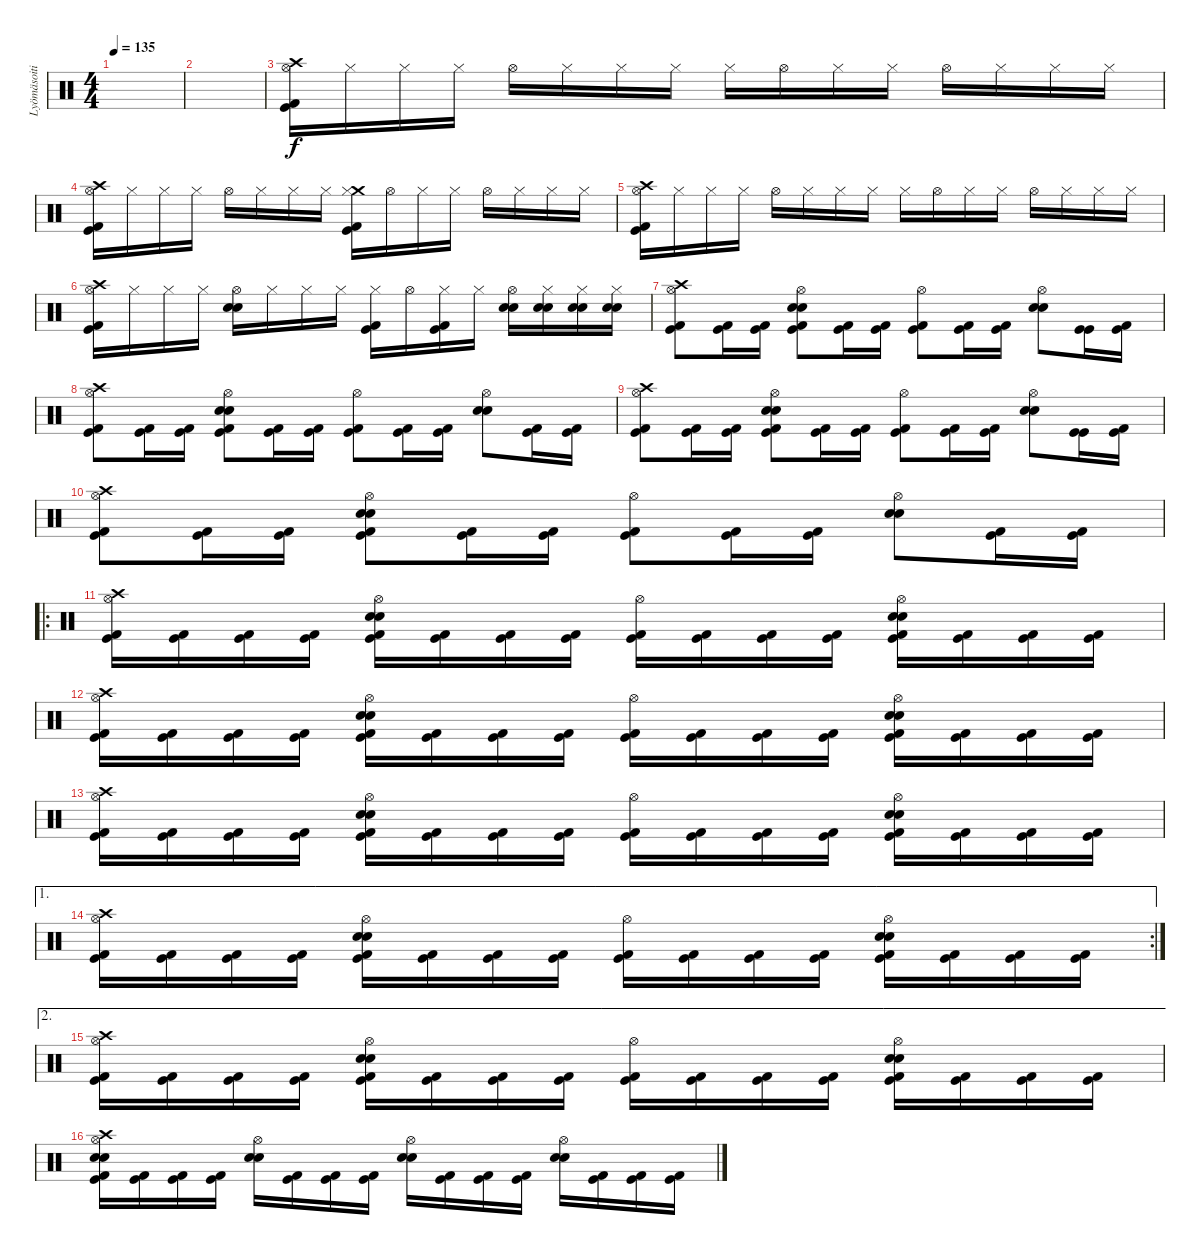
\track ("Lyömäsoitin" "Lyömäsoiti") {instrument percussion}
\staff {score}
\articulation defaults
\ts (4 4)
\tempo 135
\clef neutral
\ks c
|
|
("Crash high (hit)" "Hi-Hat (open)" "Kick (hit)" "Kick (hit) 2").16 "Hi-Hat (closed)".16 "Hi-Hat (closed)".16 "Hi-Hat (closed)".16 "Hi-Hat (open)".16 "Hi-Hat (closed)".16 "Hi-Hat (closed)".16 "Hi-Hat (closed)".16 "Hi-Hat (closed)".16 "Hi-Hat (open)".16 "Hi-Hat (closed)".16 "Hi-Hat (closed)".16 "Hi-Hat (open)".16 "Hi-Hat (closed)".16 "Hi-Hat (closed)".16 "Hi-Hat (closed)".16 |
("Crash high (hit)" "Hi-Hat (open)" "Kick (hit) 2" "Kick (hit)").16 "Hi-Hat (closed)".16 "Hi-Hat (closed)".16 "Hi-Hat (closed)".16 "Hi-Hat (open)".16 "Hi-Hat (closed)".16 "Hi-Hat (closed)".16 "Hi-Hat (closed)".16 ("Crash medium (hit)" "Hi-Hat (closed)" "Kick (hit) 2" "Kick (hit)").16 "Hi-Hat (open)".16 "Hi-Hat (closed)".16 "Hi-Hat (closed)".16 "Hi-Hat (open)".16 "Hi-Hat (closed)".16 "Hi-Hat (closed)".16 "Hi-Hat (closed)".16 |
("Crash high (hit)" "Hi-Hat (open)" "Kick (hit)" "Kick (hit) 2").16 "Hi-Hat (closed)".16 "Hi-Hat (closed)".16 "Hi-Hat (closed)".16 "Hi-Hat (open)".16 "Hi-Hat (closed)".16 "Hi-Hat (closed)".16 "Hi-Hat (closed)".16 "Hi-Hat (closed)".16 "Hi-Hat (open)".16 "Hi-Hat (closed)".16 "Hi-Hat (closed)".16 "Hi-Hat (open)".16 "Hi-Hat (closed)".16 "Hi-Hat (closed)".16 "Hi-Hat (closed)".16 |
("Crash high (hit)" "Hi-Hat (open)" "Kick (hit) 2" "Kick (hit)").16 "Hi-Hat (closed)".16 "Hi-Hat (closed)".16 "Hi-Hat (closed)".16 ("Electric Snare (hit)" "Snare (hit) 2" "Hi-Hat (open)").16 "Hi-Hat (closed)".16 "Hi-Hat (closed)".16 "Hi-Hat (closed)".16 ("Hi-Hat (closed)" "Kick (hit) 2" "Kick (hit)").16 "Hi-Hat (open)".16 ("Hi-Hat (closed)" "Kick (hit) 2" "Kick (hit)").16 "Hi-Hat (closed)".16 ("Electric Snare (hit)" "Snare (hit) 2" "Hi-Hat (open)").16 ("Electric Snare (hit)" "Snare (hit) 2" "Hi-Hat (closed)").16 ("Electric Snare (hit)" "Snare (hit) 2" "Hi-Hat (closed)").16 ("Electric Snare (hit)" "Snare (hit) 2" "Hi-Hat (closed)").16 |
("Crash high (hit)" "Hi-Hat (open)" "Kick (hit) 2" "Kick (hit)").8 ("Kick (hit) 2" "Kick (hit)").16 ("Kick (hit) 2" "Kick (hit)").16 ("Hi-Hat (open)" "Snare (hit) 2" "Electric Snare (hit)" "Kick (hit) 2" "Kick (hit)").8 ("Kick (hit) 2" "Kick (hit)").16 ("Kick (hit) 2" "Kick (hit)").16 ("Hi-Hat (open)" "Kick (hit) 2" "Kick (hit)").8 ("Kick (hit) 2" "Kick (hit)").16 ("Kick (hit) 2" "Kick (hit)").16 ("Hi-Hat (open)" "Snare (hit) 2" "Electric Snare (hit)").8 ("Kick (hit)" "Kick (hit)").16 ("Kick (hit) 2" "Kick (hit)").16 |
("Crash high (hit)" "Hi-Hat (open)" "Kick (hit) 2" "Kick (hit)").8 ("Kick (hit) 2" "Kick (hit)").16 ("Kick (hit) 2" "Kick (hit)").16 ("Hi-Hat (open)" "Snare (hit) 2" "Electric Snare (hit)" "Kick (hit) 2" "Kick (hit)").8 ("Kick (hit) 2" "Kick (hit)").16 ("Kick (hit) 2" "Kick (hit)").16 ("Hi-Hat (open)" "Kick (hit) 2" "Kick (hit)").8 ("Kick (hit) 2" "Kick (hit)").16 ("Kick (hit) 2" "Kick (hit)").16 ("Hi-Hat (open)" "Snare (hit) 2" "Electric Snare (hit)").8 ("Kick (hit)" "Kick (hit) 2").16 ("Kick (hit)" "Kick (hit) 2").16 |
("Crash high (hit)" "Hi-Hat (open)" "Kick (hit) 2" "Kick (hit)").8 ("Kick (hit) 2" "Kick (hit)").16 ("Kick (hit) 2" "Kick (hit)").16 ("Hi-Hat (open)" "Snare (hit) 2" "Electric Snare (hit)" "Kick (hit) 2" "Kick (hit)").8 ("Kick (hit) 2" "Kick (hit)").16 ("Kick (hit) 2" "Kick (hit)").16 ("Hi-Hat (open)" "Kick (hit) 2" "Kick (hit)").8 ("Kick (hit) 2" "Kick (hit)").16 ("Kick (hit) 2" "Kick (hit)").16 ("Hi-Hat (open)" "Snare (hit) 2" "Electric Snare (hit)").8 ("Kick (hit)" "Kick (hit)").16 ("Kick (hit) 2" "Kick (hit)").16 |
("Crash high (hit)" "Hi-Hat (open)" "Kick (hit) 2" "Kick (hit)").8 ("Kick (hit) 2" "Kick (hit)").16 ("Kick (hit) 2" "Kick (hit)").16 ("Hi-Hat (open)" "Snare (hit) 2" "Electric Snare (hit)" "Kick (hit) 2" "Kick (hit)").8 ("Kick (hit) 2" "Kick (hit)").16 ("Kick (hit) 2" "Kick (hit)").16 ("Hi-Hat (open)" "Kick (hit) 2" "Kick (hit)").8 ("Kick (hit) 2" "Kick (hit)").16 ("Kick (hit) 2" "Kick (hit)").16 ("Hi-Hat (open)" "Snare (hit) 2" "Electric Snare (hit)").8 ("Kick (hit)" "Kick (hit) 2").16 ("Kick (hit)" "Kick (hit) 2").16 |
\ro
("Crash high (hit)" "Hi-Hat (open)" "Kick (hit) 2" "Kick (hit)").16 ("Kick (hit) 2" "Kick (hit)").16 ("Kick (hit) 2" "Kick (hit)").16 ("Kick (hit) 2" "Kick (hit)").16 ("Hi-Hat (open)" "Electric Snare (hit)" "Snare (hit) 2" "Kick (hit) 2" "Kick (hit)").16 ("Kick (hit) 2" "Kick (hit)").16 ("Kick (hit) 2" "Kick (hit)").16 ("Kick (hit) 2" "Kick (hit)").16 ("Hi-Hat (open)" "Kick (hit) 2" "Kick (hit)").16 ("Kick (hit) 2" "Kick (hit)").16 ("Kick (hit) 2" "Kick (hit)").16 ("Kick (hit) 2" "Kick (hit)").16 ("Hi-Hat (open)" "Electric Snare (hit)" "Snare (hit) 2" "Kick (hit) 2" "Kick (hit)").16 ("Kick (hit) 2" "Kick (hit)").16 ("Kick (hit) 2" "Kick (hit)").16 ("Kick (hit) 2" "Kick (hit)").16 |
("Crash high (hit)" "Hi-Hat (open)" "Kick (hit) 2" "Kick (hit)").16 ("Kick (hit) 2" "Kick (hit)").16 ("Kick (hit) 2" "Kick (hit)").16 ("Kick (hit) 2" "Kick (hit)").16 ("Hi-Hat (open)" "Electric Snare (hit)" "Snare (hit) 2" "Kick (hit) 2" "Kick (hit)").16 ("Kick (hit) 2" "Kick (hit)").16 ("Kick (hit) 2" "Kick (hit)").16 ("Kick (hit) 2" "Kick (hit)").16 ("Hi-Hat (open)" "Kick (hit) 2" "Kick (hit)").16 ("Kick (hit) 2" "Kick (hit)").16 ("Kick (hit) 2" "Kick (hit)").16 ("Kick (hit) 2" "Kick (hit)").16 ("Hi-Hat (open)" "Electric Snare (hit)" "Snare (hit) 2" "Kick (hit) 2" "Kick (hit)").16 ("Kick (hit) 2" "Kick (hit)").16 ("Kick (hit) 2" "Kick (hit)").16 ("Kick (hit) 2" "Kick (hit)").16 |
("Crash high (hit)" "Hi-Hat (open)" "Kick (hit) 2" "Kick (hit)").16 ("Kick (hit) 2" "Kick (hit)").16 ("Kick (hit) 2" "Kick (hit)").16 ("Kick (hit) 2" "Kick (hit)").16 ("Hi-Hat (open)" "Electric Snare (hit)" "Snare (hit) 2" "Kick (hit) 2" "Kick (hit)").16 ("Kick (hit) 2" "Kick (hit)").16 ("Kick (hit) 2" "Kick (hit)").16 ("Kick (hit) 2" "Kick (hit)").16 ("Hi-Hat (open)" "Kick (hit) 2" "Kick (hit)").16 ("Kick (hit) 2" "Kick (hit)").16 ("Kick (hit) 2" "Kick (hit)").16 ("Kick (hit) 2" "Kick (hit)").16 ("Hi-Hat (open)" "Electric Snare (hit)" "Snare (hit) 2" "Kick (hit) 2" "Kick (hit)").16 ("Kick (hit) 2" "Kick (hit)").16 ("Kick (hit) 2" "Kick (hit)").16 ("Kick (hit) 2" "Kick (hit)").16 |
\ae 1
\rc 2
("Crash high (hit)" "Hi-Hat (open)" "Kick (hit) 2" "Kick (hit)").16 ("Kick (hit) 2" "Kick (hit)").16 ("Kick (hit) 2" "Kick (hit)").16 ("Kick (hit) 2" "Kick (hit)").16 ("Hi-Hat (open)" "Electric Snare (hit)" "Snare (hit) 2" "Kick (hit) 2" "Kick (hit)").16 ("Kick (hit) 2" "Kick (hit)").16 ("Kick (hit) 2" "Kick (hit)").16 ("Kick (hit) 2" "Kick (hit)").16 ("Hi-Hat (open)" "Kick (hit) 2" "Kick (hit)").16 ("Kick (hit) 2" "Kick (hit)").16 ("Kick (hit) 2" "Kick (hit)").16 ("Kick (hit) 2" "Kick (hit)").16 ("Hi-Hat (open)" "Electric Snare (hit)" "Snare (hit) 2" "Kick (hit) 2" "Kick (hit)").16 ("Kick (hit) 2" "Kick (hit)").16 ("Kick (hit) 2" "Kick (hit)").16 ("Kick (hit) 2" "Kick (hit)").16 |
\ae 2
("Crash high (hit)" "Hi-Hat (open)" "Kick (hit) 2" "Kick (hit)").16 ("Kick (hit) 2" "Kick (hit)").16 ("Kick (hit) 2" "Kick (hit)").16 ("Kick (hit) 2" "Kick (hit)").16 ("Hi-Hat (open)" "Electric Snare (hit)" "Snare (hit) 2" "Kick (hit) 2" "Kick (hit)").16 ("Kick (hit) 2" "Kick (hit)").16 ("Kick (hit) 2" "Kick (hit)").16 ("Kick (hit) 2" "Kick (hit)").16 ("Hi-Hat (open)" "Kick (hit) 2" "Kick (hit)").16 ("Kick (hit) 2" "Kick (hit)").16 ("Kick (hit) 2" "Kick (hit)").16 ("Kick (hit) 2" "Kick (hit)").16 ("Hi-Hat (open)" "Electric Snare (hit)" "Snare (hit) 2" "Kick (hit) 2" "Kick (hit)").16 ("Kick (hit) 2" "Kick (hit)").16 ("Kick (hit) 2" "Kick (hit)").16 ("Kick (hit) 2" "Kick (hit)").16 |
("Crash high (hit)" "Hi-Hat (open)" "Snare (hit) 2" "Electric Snare (hit)" "Kick (hit) 2" "Kick (hit)").16 ("Kick (hit)" "Kick (hit) 2").16 ("Kick (hit)" "Kick (hit) 2").16 ("Kick (hit)" "Kick (hit) 2").16 ("Hi-Hat (open)" "Electric Snare (hit)" "Snare (hit) 2").16 ("Kick (hit)" "Kick (hit) 2").16 ("Kick (hit)" "Kick (hit) 2").16 ("Kick (hit)" "Kick (hit) 2").16 ("Hi-Hat (open)" "Electric Snare (hit)" "Snare (hit) 2").16 ("Kick (hit)" "Kick (hit) 2").16 ("Kick (hit)" "Kick (hit) 2").16 ("Kick (hit)" "Kick (hit) 2").16 ("Hi-Hat (open)" "Electric Snare (hit)" "Snare (hit) 2").16 ("Kick (hit)" "Kick (hit) 2").16 ("Kick (hit)" "Kick (hit) 2").16 ("Kick (hit)" "Kick (hit) 2").16
